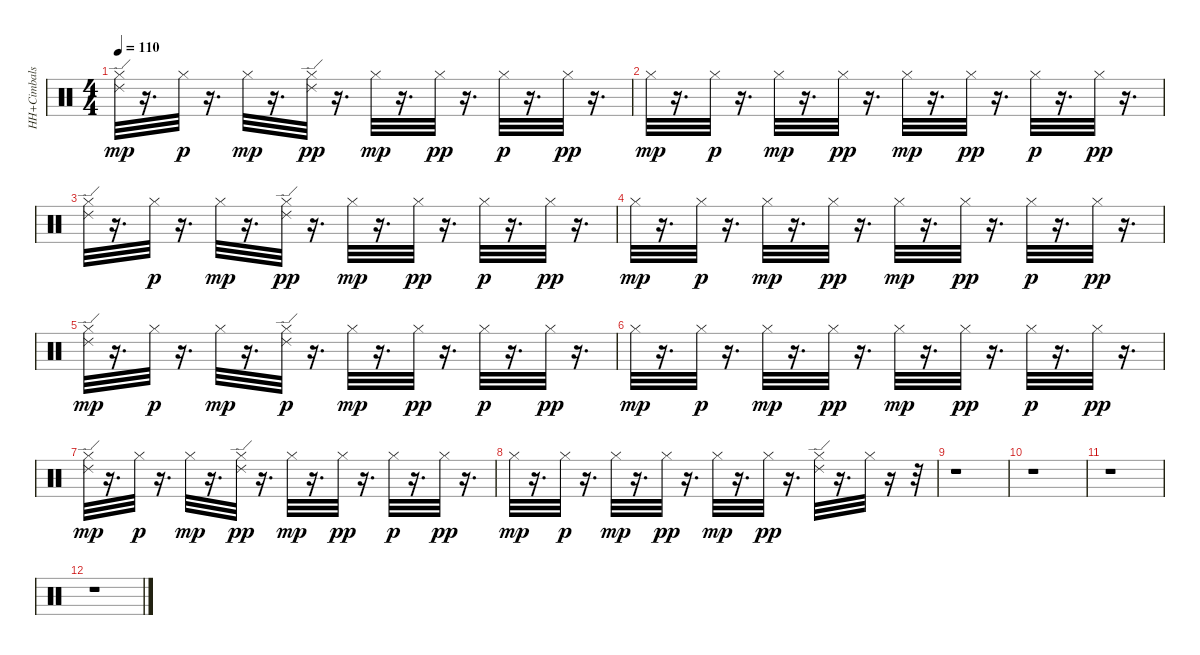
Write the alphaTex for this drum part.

\track ("HH+Cimbals" "HH+Cimbals") {instrument percussion}
\staff {score}
\articulation defaults
\ts (4 4)
\tempo 110
\clef neutral
\ks c
("Ride (edge) 2" "Hi-Hat (closed)").32{dy mp} r.16{d} "Hi-Hat (closed)".32{dy p} r.16{d} "Hi-Hat (closed)".32{dy mp} r.16{d} ("Ride (edge) 2" "Hi-Hat (closed)").32{dy pp} r.16{d} "Hi-Hat (closed)".32{dy mp} r.16{d} "Hi-Hat (closed)".32{dy pp} r.16{d} "Hi-Hat (closed)".32{dy p} r.16{d} "Hi-Hat (closed)".32{dy pp} r.16{d} |
"Hi-Hat (closed)".32{dy mp} r.16{d} "Hi-Hat (closed)".32{dy p} r.16{d} "Hi-Hat (closed)".32{dy mp} r.16{d} "Hi-Hat (closed)".32{dy pp} r.16{d} "Hi-Hat (closed)".32{dy mp} r.16{d} "Hi-Hat (closed)".32{dy pp} r.16{d} "Hi-Hat (closed)".32{dy p} r.16{d} "Hi-Hat (closed)".32{dy pp} r.16{d} |
("Hi-Hat (closed)" "Ride (edge) 2").32 r.16{d} "Hi-Hat (closed)".32{dy p} r.16{d} "Hi-Hat (closed)".32{dy mp} r.16{d} ("Hi-Hat (closed)" "Ride (edge) 2").32{dy pp} r.16{d} "Hi-Hat (closed)".32{dy mp} r.16{d} "Hi-Hat (closed)".32{dy pp} r.16{d} "Hi-Hat (closed)".32{dy p} r.16{d} "Hi-Hat (closed)".32{dy pp} r.16{d} |
"Hi-Hat (closed)".32{dy mp} r.16{d} "Hi-Hat (closed)".32{dy p} r.16{d} "Hi-Hat (closed)".32{dy mp} r.16{d} "Hi-Hat (closed)".32{dy pp} r.16{d} "Hi-Hat (closed)".32{dy mp} r.16{d} "Hi-Hat (closed)".32{dy pp} r.16{d} "Hi-Hat (closed)".32{dy p} r.16{d} "Hi-Hat (closed)".32{dy pp} r.16{d} |
("Ride (edge) 2" "Hi-Hat (closed)").32{dy mp} r.16{d} "Hi-Hat (closed)".32{dy p} r.16{d} "Hi-Hat (closed)".32{dy mp} r.16{d} ("Hi-Hat (closed)" "Ride (edge) 2").32{dy p} r.16{d} "Hi-Hat (closed)".32{dy mp} r.16{d} "Hi-Hat (closed)".32{dy pp} r.16{d} "Hi-Hat (closed)".32{dy p} r.16{d} "Hi-Hat (closed)".32{dy pp} r.16{d} |
"Hi-Hat (closed)".32{dy mp} r.16{d} "Hi-Hat (closed)".32{dy p} r.16{d} "Hi-Hat (closed)".32{dy mp} r.16{d} "Hi-Hat (closed)".32{dy pp} r.16{d} "Hi-Hat (closed)".32{dy mp} r.16{d} "Hi-Hat (closed)".32{dy pp} r.16{d} "Hi-Hat (closed)".32{dy p} r.16{d} "Hi-Hat (closed)".32{dy pp} r.16{d} |
("Ride (edge) 2" "Hi-Hat (closed)").32{dy mp} r.16{d} "Hi-Hat (closed)".32{dy p} r.16{d} "Hi-Hat (closed)".32{dy mp} r.16{d} ("Hi-Hat (closed)" "Ride (edge) 2").32{dy pp} r.16{d} "Hi-Hat (closed)".32{dy mp} r.16{d} "Hi-Hat (closed)".32{dy pp} r.16{d} "Hi-Hat (closed)".32{dy p} r.16{d} "Hi-Hat (closed)".32{dy pp} r.16{d} |
"Hi-Hat (closed)".32{dy mp} r.16{d} "Hi-Hat (closed)".32{dy p} r.16{d} "Hi-Hat (closed)".32{dy mp} r.16{d} "Hi-Hat (closed)".32{dy pp} r.16{d} "Hi-Hat (closed)".32{dy mp} r.16{d} "Hi-Hat (closed)".32{dy pp} r.16{d} ("Hi-Hat (closed)" "Ride (edge) 2").32 r.16{d} "Hi-Hat (closed)".32 r.16 r.32 |
r.1 |
r.1 |
r.1 |
r.1
